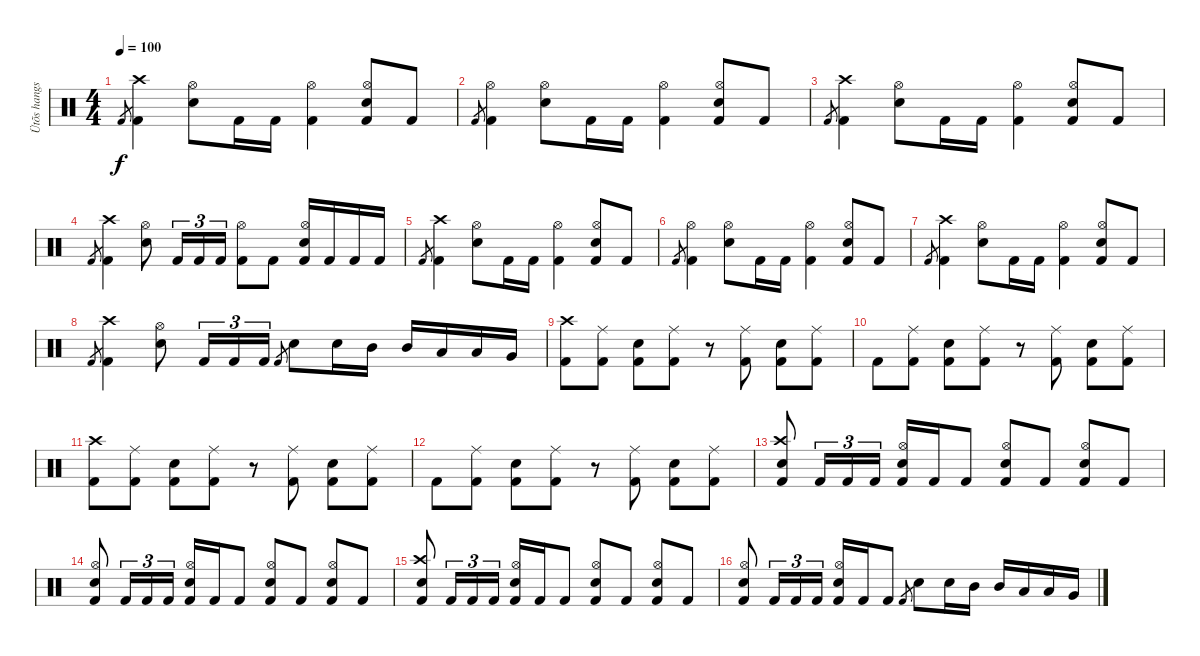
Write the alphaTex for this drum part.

\track ("Ütõs hangszer" "Ütõs hangs") {instrument percussion}
\staff {score}
\articulation defaults
\ts (4 4)
\tempo 100
\clef neutral
\ks c "Kick (hit) 2"{h}.8{gr dy f}
("Crash high (hit)" "Kick (hit) 2").4 ("Hi-Hat (open)" "Snare (hit) 2").8 "Kick (hit) 2".16 "Kick (hit) 2".16 ("Hi-Hat (open)" "Kick (hit) 2").4 ("Hi-Hat (open)" "Snare (hit) 2" "Kick (hit) 2").8 "Kick (hit) 2".8 |
"Kick (hit) 2"{h}.8{gr} ("Hi-Hat (open)" "Kick (hit) 2").4 ("Hi-Hat (open)" "Snare (hit) 2").8 "Kick (hit) 2".16 "Kick (hit) 2".16 ("Hi-Hat (open)" "Kick (hit) 2").4 ("Hi-Hat (open)" "Snare (hit) 2" "Kick (hit) 2").8 "Kick (hit) 2".8 |
"Kick (hit) 2"{h}.8{gr} ("Crash high (hit)" "Kick (hit) 2").4 ("Hi-Hat (open)" "Snare (hit) 2").8 "Kick (hit) 2".16 "Kick (hit) 2".16 ("Hi-Hat (open)" "Kick (hit) 2").4 ("Hi-Hat (open)" "Snare (hit) 2" "Kick (hit) 2").8 "Kick (hit) 2".8 |
"Kick (hit) 2"{h}.8{gr} ("Crash high (hit)" "Kick (hit) 2").4 ("Hi-Hat (open)" "Snare (hit) 2").8 "Kick (hit) 2".16{tu (3 2)} "Kick (hit) 2".16{tu (3 2)} "Kick (hit) 2".16{tu (3 2)} ("Hi-Hat (open)" "Kick (hit) 2").8 "Kick (hit) 2".8 ("Hi-Hat (open)" "Snare (hit) 2" "Kick (hit) 2").16 "Kick (hit) 2".16 "Kick (hit) 2".16 "Kick (hit) 2".16 |
"Kick (hit) 2"{h}.8{gr} ("Crash high (hit)" "Kick (hit) 2").4 ("Hi-Hat (open)" "Snare (hit) 2").8 "Kick (hit) 2".16 "Kick (hit) 2".16 ("Hi-Hat (open)" "Kick (hit) 2").4 ("Hi-Hat (open)" "Snare (hit) 2" "Kick (hit) 2").8 "Kick (hit) 2".8 |
"Kick (hit) 2"{h}.8{gr} ("Hi-Hat (open)" "Kick (hit) 2").4 ("Hi-Hat (open)" "Snare (hit) 2").8 "Kick (hit) 2".16 "Kick (hit) 2".16 ("Hi-Hat (open)" "Kick (hit) 2").4 ("Hi-Hat (open)" "Snare (hit) 2" "Kick (hit) 2").8 "Kick (hit) 2".8 |
"Kick (hit) 2"{h}.8{gr} ("Crash high (hit)" "Kick (hit) 2").4 ("Hi-Hat (open)" "Snare (hit) 2").8 "Kick (hit) 2".16 "Kick (hit) 2".16 ("Hi-Hat (open)" "Kick (hit) 2").4 ("Hi-Hat (open)" "Snare (hit) 2" "Kick (hit) 2").8 "Kick (hit) 2".8 |
"Kick (hit) 2"{h}.8{gr} ("Crash high (hit)" "Kick (hit) 2").4 ("Hi-Hat (open)" "Snare (hit) 2").8 "Kick (hit) 2".16{tu (3 2)} "Kick (hit) 2".16{tu (3 2)} "Kick (hit) 2".16{tu (3 2)} "Kick (hit) 2"{h}.8{gr} "Snare (hit) 2".8 "Snare (hit) 2".16 "Mid Tom (hit)".16 "Mid Tom (hit)".16 "Low Tom (hit)".16 "Low Tom (hit)".16 "Very Low Tom (hit)".16 |
("Crash high (hit)" "Kick (hit) 2").8 ("Ride (middle)" "Kick (hit) 2").8 ("Snare (hit) 2" "Kick (hit) 2").8 ("Ride (middle)" "Kick (hit) 2").8 r.8 ("Ride (middle)" "Kick (hit) 2").8 ("Snare (hit) 2" "Kick (hit) 2").8 ("Ride (middle)" "Kick (hit) 2").8 |
"Kick (hit) 2".8 ("Ride (middle)" "Kick (hit) 2").8 ("Snare (hit) 2" "Kick (hit) 2").8 ("Ride (middle)" "Kick (hit) 2").8 r.8 ("Ride (middle)" "Kick (hit) 2").8 ("Snare (hit) 2" "Kick (hit) 2").8 ("Ride (middle)" "Kick (hit) 2").8 |
("Crash high (hit)" "Kick (hit) 2").8 ("Ride (middle)" "Kick (hit) 2").8 ("Snare (hit) 2" "Kick (hit) 2").8 ("Ride (middle)" "Kick (hit) 2").8 r.8 ("Ride (middle)" "Kick (hit) 2").8 ("Snare (hit) 2" "Kick (hit) 2").8 ("Ride (middle)" "Kick (hit) 2").8 |
"Kick (hit) 2".8 ("Ride (middle)" "Kick (hit) 2").8 ("Snare (hit) 2" "Kick (hit) 2").8 ("Ride (middle)" "Kick (hit) 2").8 r.8 ("Ride (middle)" "Kick (hit) 2").8 ("Snare (hit) 2" "Kick (hit) 2").8 ("Ride (middle)" "Kick (hit) 2").8 |
("Crash high (hit)" "Snare (hit) 2" "Kick (hit) 2").8 "Kick (hit) 2".16{tu (3 2)} "Kick (hit) 2".16{tu (3 2)} "Kick (hit) 2".16{tu (3 2)} ("Hi-Hat (open)" "Snare (hit) 2" "Kick (hit) 2").16 "Kick (hit) 2".16 "Kick (hit) 2".8 ("Hi-Hat (open)" "Snare (hit) 2" "Kick (hit) 2").8 "Kick (hit) 2".8 ("Hi-Hat (open)" "Snare (hit) 2" "Kick (hit) 2").8 "Kick (hit) 2".8 |
("Hi-Hat (open)" "Snare (hit) 2" "Kick (hit) 2").8 "Kick (hit) 2".16{tu (3 2)} "Kick (hit) 2".16{tu (3 2)} "Kick (hit) 2".16{tu (3 2)} ("Hi-Hat (open)" "Snare (hit) 2" "Kick (hit) 2").16 "Kick (hit) 2".16 "Kick (hit) 2".8 ("Hi-Hat (open)" "Snare (hit) 2" "Kick (hit) 2").8 "Kick (hit) 2".8 ("Hi-Hat (open)" "Snare (hit) 2" "Kick (hit) 2").8 "Kick (hit) 2".8 |
("Crash high (hit)" "Snare (hit) 2" "Kick (hit) 2").8 "Kick (hit) 2".16{tu (3 2)} "Kick (hit) 2".16{tu (3 2)} "Kick (hit) 2".16{tu (3 2)} ("Hi-Hat (open)" "Snare (hit) 2" "Kick (hit) 2").16 "Kick (hit) 2".16 "Kick (hit) 2".8 ("Hi-Hat (open)" "Snare (hit) 2" "Kick (hit) 2").8 "Kick (hit) 2".8 ("Hi-Hat (open)" "Snare (hit) 2" "Kick (hit) 2").8 "Kick (hit) 2".8 |
("Hi-Hat (open)" "Snare (hit) 2" "Kick (hit) 2").8 "Kick (hit) 2".16{tu (3 2)} "Kick (hit) 2".16{tu (3 2)} "Kick (hit) 2".16{tu (3 2)} ("Hi-Hat (open)" "Snare (hit) 2" "Kick (hit) 2").16 "Kick (hit) 2".16 "Kick (hit) 2".8 "Kick (hit) 2"{h}.8{gr} "Snare (hit) 2".8 "Snare (hit) 2".16 "Mid Tom (hit)".16 "Mid Tom (hit)".16 "Low Tom (hit)".16 "Low Tom (hit)".16 "Very Low Tom (hit)".16
